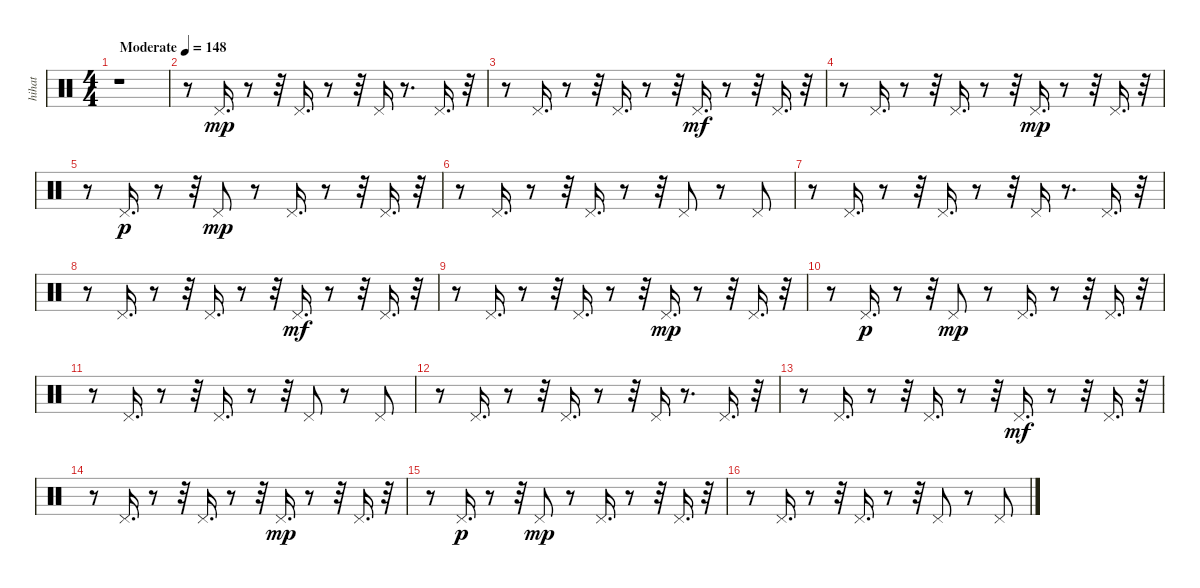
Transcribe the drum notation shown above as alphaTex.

\track ("hihat               " "hihat     ") {instrument percussion}
\staff {score}
\articulation defaults
\ts (4 4)
\tempo (148 "Moderate")
\clef neutral
\ks c
r.1{dy mp} |
r.8 "Pedal Hi-Hat (hit)".16{d} r.8 r.32 "Pedal Hi-Hat (hit)".16{d} r.8 r.32 "Pedal Hi-Hat (hit)".16 r.8{d} "Pedal Hi-Hat (hit)".16{d} r.32 |
r.8 "Pedal Hi-Hat (hit)".16{d} r.8 r.32 "Pedal Hi-Hat (hit)".16{d} r.8 r.32 "Pedal Hi-Hat (hit)".16{d dy mf} r.8 r.32 "Pedal Hi-Hat (hit)".16{d} r.32 |
r.8 "Pedal Hi-Hat (hit)".16{d} r.8 r.32 "Pedal Hi-Hat (hit)".16{d} r.8 r.32 "Pedal Hi-Hat (hit)".16{d dy mp} r.8 r.32 "Pedal Hi-Hat (hit)".16{d} r.32 |
r.8 "Pedal Hi-Hat (hit)".16{d dy p} r.8 r.32 "Pedal Hi-Hat (hit)".8{dy mp} r.8 "Pedal Hi-Hat (hit)".16{d} r.8 r.32 "Pedal Hi-Hat (hit)".16{d} r.32 |
r.8 "Pedal Hi-Hat (hit)".16{d} r.8 r.32 "Pedal Hi-Hat (hit)".16{d} r.8 r.32 "Pedal Hi-Hat (hit)".8 r.8 "Pedal Hi-Hat (hit)".8 |
r.8 "Pedal Hi-Hat (hit)".16{d} r.8 r.32 "Pedal Hi-Hat (hit)".16{d} r.8 r.32 "Pedal Hi-Hat (hit)".16 r.8{d} "Pedal Hi-Hat (hit)".16{d} r.32 |
r.8 "Pedal Hi-Hat (hit)".16{d} r.8 r.32 "Pedal Hi-Hat (hit)".16{d} r.8 r.32 "Pedal Hi-Hat (hit)".16{d dy mf} r.8 r.32 "Pedal Hi-Hat (hit)".16{d} r.32 |
r.8 "Pedal Hi-Hat (hit)".16{d} r.8 r.32 "Pedal Hi-Hat (hit)".16{d} r.8 r.32 "Pedal Hi-Hat (hit)".16{d dy mp} r.8 r.32 "Pedal Hi-Hat (hit)".16{d} r.32 |
r.8 "Pedal Hi-Hat (hit)".16{d dy p} r.8 r.32 "Pedal Hi-Hat (hit)".8{dy mp} r.8 "Pedal Hi-Hat (hit)".16{d} r.8 r.32 "Pedal Hi-Hat (hit)".16{d} r.32 |
r.8 "Pedal Hi-Hat (hit)".16{d} r.8 r.32 "Pedal Hi-Hat (hit)".16{d} r.8 r.32 "Pedal Hi-Hat (hit)".8 r.8 "Pedal Hi-Hat (hit)".8 |
r.8 "Pedal Hi-Hat (hit)".16{d} r.8 r.32 "Pedal Hi-Hat (hit)".16{d} r.8 r.32 "Pedal Hi-Hat (hit)".16 r.8{d} "Pedal Hi-Hat (hit)".16{d} r.32 |
r.8 "Pedal Hi-Hat (hit)".16{d} r.8 r.32 "Pedal Hi-Hat (hit)".16{d} r.8 r.32 "Pedal Hi-Hat (hit)".16{d dy mf} r.8 r.32 "Pedal Hi-Hat (hit)".16{d} r.32 |
r.8 "Pedal Hi-Hat (hit)".16{d} r.8 r.32 "Pedal Hi-Hat (hit)".16{d} r.8 r.32 "Pedal Hi-Hat (hit)".16{d dy mp} r.8 r.32 "Pedal Hi-Hat (hit)".16{d} r.32 |
r.8 "Pedal Hi-Hat (hit)".16{d dy p} r.8 r.32 "Pedal Hi-Hat (hit)".8{dy mp} r.8 "Pedal Hi-Hat (hit)".16{d} r.8 r.32 "Pedal Hi-Hat (hit)".16{d} r.32 |
r.8 "Pedal Hi-Hat (hit)".16{d} r.8 r.32 "Pedal Hi-Hat (hit)".16{d} r.8 r.32 "Pedal Hi-Hat (hit)".8 r.8 "Pedal Hi-Hat (hit)".8
